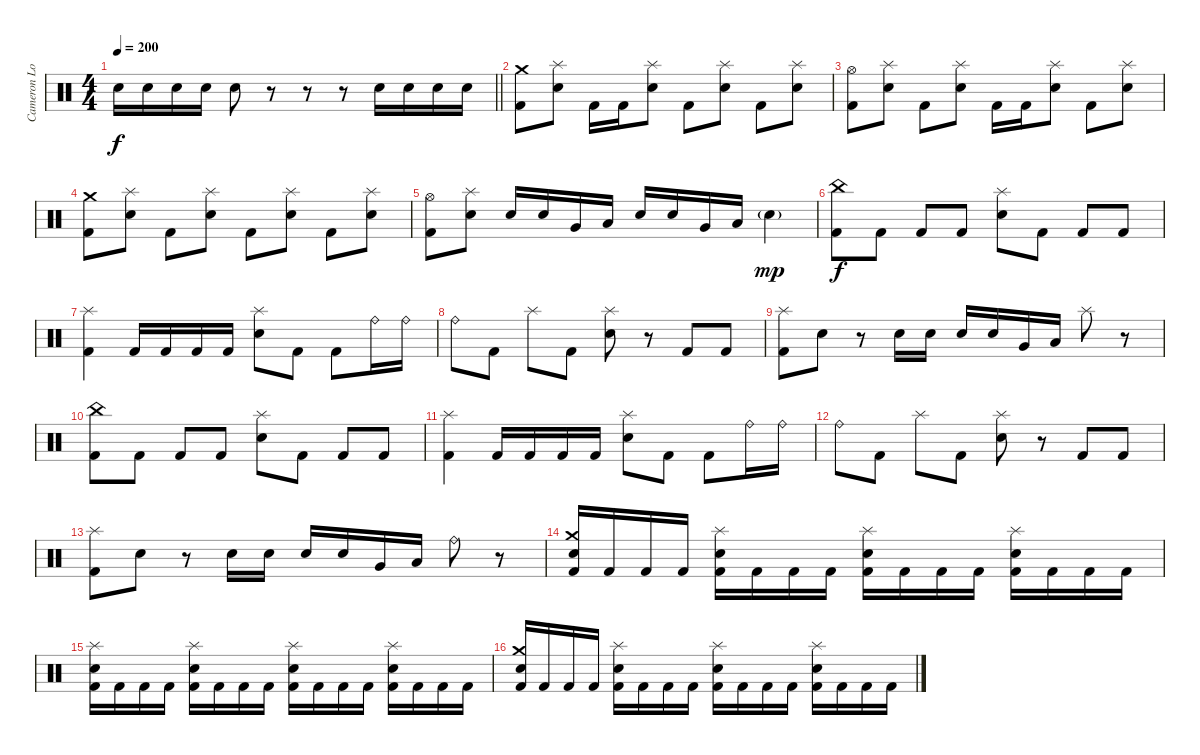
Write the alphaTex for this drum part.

\track ("Cameron Losch - drums" "Cameron Lo") {instrument percussion}
\staff {score}
\articulation defaults
\ts (4 4)
\tempo 200
\clef neutral
\barLineRight lightlight
\ks c "Electric Snare (hit)".16{dy f} "Electric Snare (hit)".16 "Electric Snare (hit)".16 "Electric Snare (hit)".16 "Electric Snare (hit)".8
r.8 r.8 r.8 "Electric Snare (hit)".16 "Electric Snare (hit)".16 "Electric Snare (hit)".16 "Electric Snare (hit)".16 |
\section ("" "")
("Crash medium (hit)" "Kick (hit) 2").8 ("Splash (hit)" "Electric Snare (hit)").8 "Kick (hit) 2".16 "Kick (hit) 2".16 ("Splash (hit)" "Electric Snare (hit)").8 "Kick (hit) 2".8 ("Splash (hit)" "Electric Snare (hit)").8 "Kick (hit) 2".8 ("Splash (hit)" "Electric Snare (hit)").8 |
("Hi-Hat (open)" "Kick (hit) 2").8 ("Splash (hit)" "Electric Snare (hit)").8 "Kick (hit) 2".8 ("Splash (hit)" "Electric Snare (hit)").8 "Kick (hit) 2".16 "Kick (hit) 2".16 ("Splash (hit)" "Electric Snare (hit)").8 "Kick (hit) 2".8 ("Splash (hit)" "Electric Snare (hit)").8 |
("Crash medium (hit)" "Kick (hit) 2").8 ("Splash (hit)" "Electric Snare (hit)").8 "Kick (hit) 2".8 ("Splash (hit)" "Electric Snare (hit)").8 "Kick (hit) 2".8 ("Splash (hit)" "Electric Snare (hit)").8 "Kick (hit) 2".8 ("Splash (hit)" "Electric Snare (hit)").8 |
("Hi-Hat (open)" "Kick (hit) 2").8 ("Splash (hit)" "Electric Snare (hit)").8 "Electric Snare (hit)".16 "Electric Snare (hit)".16 "Very Low Tom (hit)".16 "Low Floor Tom (hit)".16 "Electric Snare (hit)".16 "Electric Snare (hit)".16 "Very Low Tom (hit)".16 "Low Floor Tom (hit)".16 "Electric Snare (hit)"{g}.4{dy mp} |
("China (hit)" "Kick (hit) 2").8{dy f} "Kick (hit) 2".8 "Kick (hit) 2".8 "Kick (hit) 2".8 ("Splash (hit)" "Electric Snare (hit)").8 "Kick (hit) 2".8 "Kick (hit) 2".8 "Kick (hit) 2".8 |
("Splash (hit)" "Kick (hit) 2").4 "Kick (hit) 2".16 "Kick (hit) 2".16 "Kick (hit) 2".16 "Kick (hit) 2".16 ("Splash (hit)" "Electric Snare (hit)").8 "Kick (hit) 2".8 "Kick (hit) 2".8 "Ride (bell)".16 "Ride (bell)".16 |
"Ride (bell)".8 "Kick (hit) 2".8 "Splash (hit)".8 "Kick (hit) 2".8 ("Splash (hit)" "Electric Snare (hit)").8 r.8 "Kick (hit) 2".8 "Kick (hit) 2".8 |
("Splash (hit)" "Kick (hit) 2").8 "Electric Snare (hit)".8 r.8 "Electric Snare (hit)".16 "Electric Snare (hit)".16 "Electric Snare (hit)".16 "Electric Snare (hit)".16 "Very Low Tom (hit)".16 "Low Floor Tom (hit)".16 "Splash (hit)".8 r.8 |
("China (hit)" "Kick (hit) 2").8 "Kick (hit) 2".8 "Kick (hit) 2".8 "Kick (hit) 2".8 ("Splash (hit)" "Electric Snare (hit)").8 "Kick (hit) 2".8 "Kick (hit) 2".8 "Kick (hit) 2".8 |
("Splash (hit)" "Kick (hit) 2").4 "Kick (hit) 2".16 "Kick (hit) 2".16 "Kick (hit) 2".16 "Kick (hit) 2".16 ("Splash (hit)" "Electric Snare (hit)").8 "Kick (hit) 2".8 "Kick (hit) 2".8 "Ride (bell)".16 "Ride (bell)".16 |
"Ride (bell)".8 "Kick (hit) 2".8 "Splash (hit)".8 "Kick (hit) 2".8 ("Splash (hit)" "Electric Snare (hit)").8 r.8 "Kick (hit) 2".8 "Kick (hit) 2".8 |
("Splash (hit)" "Kick (hit) 2").8 "Electric Snare (hit)".8 r.8 "Electric Snare (hit)".16 "Electric Snare (hit)".16 "Electric Snare (hit)".16 "Electric Snare (hit)".16 "Very Low Tom (hit)".16 "Low Floor Tom (hit)".16 "Ride (bell)".8 r.8 |
("Crash medium (hit)" "Electric Snare (hit)" "Kick (hit) 2").16 "Kick (hit) 2".16 "Kick (hit) 2".16 "Kick (hit) 2".16 ("Splash (hit)" "Electric Snare (hit)" "Kick (hit) 2").16 "Kick (hit) 2".16 "Kick (hit) 2".16 "Kick (hit) 2".16 ("Splash (hit)" "Electric Snare (hit)" "Kick (hit) 2").16 "Kick (hit) 2".16 "Kick (hit) 2".16 "Kick (hit) 2".16 ("Splash (hit)" "Electric Snare (hit)" "Kick (hit) 2").16 "Kick (hit) 2".16 "Kick (hit) 2".16 "Kick (hit) 2".16 |
("Splash (hit)" "Electric Snare (hit)" "Kick (hit) 2").16 "Kick (hit) 2".16 "Kick (hit) 2".16 "Kick (hit) 2".16 ("Splash (hit)" "Electric Snare (hit)" "Kick (hit) 2").16 "Kick (hit) 2".16 "Kick (hit) 2".16 "Kick (hit) 2".16 ("Splash (hit)" "Electric Snare (hit)" "Kick (hit) 2").16 "Kick (hit) 2".16 "Kick (hit) 2".16 "Kick (hit) 2".16 ("Splash (hit)" "Electric Snare (hit)" "Kick (hit) 2").16 "Kick (hit) 2".16 "Kick (hit) 2".16 "Kick (hit) 2".16 |
("Crash medium (hit)" "Electric Snare (hit)" "Kick (hit) 2").16 "Kick (hit) 2".16 "Kick (hit) 2".16 "Kick (hit) 2".16 ("Splash (hit)" "Electric Snare (hit)" "Kick (hit) 2").16 "Kick (hit) 2".16 "Kick (hit) 2".16 "Kick (hit) 2".16 ("Splash (hit)" "Electric Snare (hit)" "Kick (hit) 2").16 "Kick (hit) 2".16 "Kick (hit) 2".16 "Kick (hit) 2".16 ("Splash (hit)" "Electric Snare (hit)" "Kick (hit) 2").16 "Kick (hit) 2".16 "Kick (hit) 2".16 "Kick (hit) 2".16
